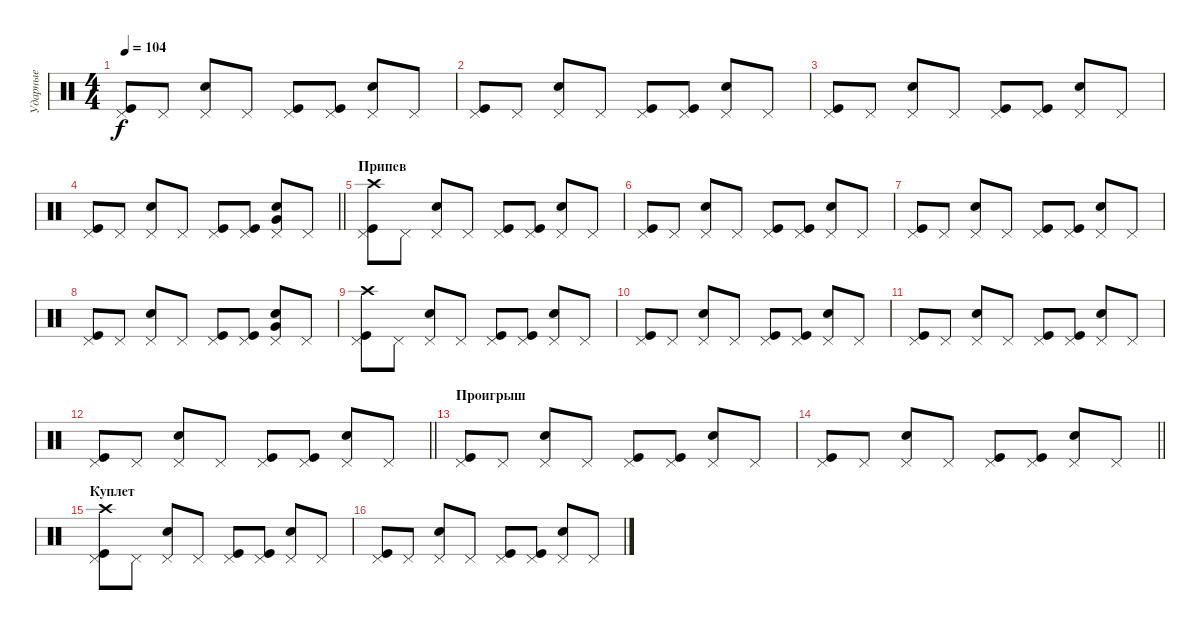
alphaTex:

\track ("Ударные" "Ударные") {instrument percussion}
\staff {score}
\articulation defaults
\ts (4 4)
\tempo 104
\clef neutral
\ks c
("Pedal Hi-Hat (hit)" "Kick (hit)").8{dy f} "Pedal Hi-Hat (hit)".8 ("Pedal Hi-Hat (hit)" "Snare (hit) 2").8 "Pedal Hi-Hat (hit)".8 ("Pedal Hi-Hat (hit)" "Kick (hit)").8 ("Pedal Hi-Hat (hit)" "Kick (hit)").8 ("Pedal Hi-Hat (hit)" "Snare (hit) 2").8 "Pedal Hi-Hat (hit)".8 |
("Pedal Hi-Hat (hit)" "Kick (hit)").8 "Pedal Hi-Hat (hit)".8 ("Pedal Hi-Hat (hit)" "Snare (hit) 2").8 "Pedal Hi-Hat (hit)".8 ("Pedal Hi-Hat (hit)" "Kick (hit)").8 ("Pedal Hi-Hat (hit)" "Kick (hit)").8 ("Pedal Hi-Hat (hit)" "Snare (hit) 2").8 "Pedal Hi-Hat (hit)".8 |
("Pedal Hi-Hat (hit)" "Kick (hit)").8 "Pedal Hi-Hat (hit)".8 ("Pedal Hi-Hat (hit)" "Snare (hit) 2").8 "Pedal Hi-Hat (hit)".8 ("Pedal Hi-Hat (hit)" "Kick (hit)").8 ("Pedal Hi-Hat (hit)" "Kick (hit)").8 ("Pedal Hi-Hat (hit)" "Snare (hit) 2").8 "Pedal Hi-Hat (hit)".8 |
\barLineRight lightlight
("Pedal Hi-Hat (hit)" "Kick (hit)").8 "Pedal Hi-Hat (hit)".8 ("Pedal Hi-Hat (hit)" "Snare (hit) 2").8 "Pedal Hi-Hat (hit)".8 ("Pedal Hi-Hat (hit)" "Kick (hit)").8 ("Pedal Hi-Hat (hit)" "Kick (hit)").8 ("Pedal Hi-Hat (hit)" "Snare (hit) 2" "Very Low Tom (hit)").8 "Pedal Hi-Hat (hit)".8 |
\section ("" "Припев")
("Pedal Hi-Hat (hit)" "Kick (hit)" "Crash high (hit)").8 "Pedal Hi-Hat (hit)".8 ("Pedal Hi-Hat (hit)" "Snare (hit) 2").8 "Pedal Hi-Hat (hit)".8 ("Pedal Hi-Hat (hit)" "Kick (hit)").8 ("Pedal Hi-Hat (hit)" "Kick (hit)").8 ("Pedal Hi-Hat (hit)" "Snare (hit) 2").8 "Pedal Hi-Hat (hit)".8 |
("Pedal Hi-Hat (hit)" "Kick (hit)").8 "Pedal Hi-Hat (hit)".8 ("Pedal Hi-Hat (hit)" "Snare (hit) 2").8 "Pedal Hi-Hat (hit)".8 ("Pedal Hi-Hat (hit)" "Kick (hit)").8 ("Pedal Hi-Hat (hit)" "Kick (hit)").8 ("Pedal Hi-Hat (hit)" "Snare (hit) 2").8 "Pedal Hi-Hat (hit)".8 |
("Pedal Hi-Hat (hit)" "Kick (hit)").8 "Pedal Hi-Hat (hit)".8 ("Pedal Hi-Hat (hit)" "Snare (hit) 2").8 "Pedal Hi-Hat (hit)".8 ("Pedal Hi-Hat (hit)" "Kick (hit)").8 ("Pedal Hi-Hat (hit)" "Kick (hit)").8 ("Pedal Hi-Hat (hit)" "Snare (hit) 2").8 "Pedal Hi-Hat (hit)".8 |
("Pedal Hi-Hat (hit)" "Kick (hit)").8 "Pedal Hi-Hat (hit)".8 ("Pedal Hi-Hat (hit)" "Snare (hit) 2").8 "Pedal Hi-Hat (hit)".8 ("Pedal Hi-Hat (hit)" "Kick (hit)").8 ("Pedal Hi-Hat (hit)" "Kick (hit)").8 ("Pedal Hi-Hat (hit)" "Snare (hit) 2" "Very Low Tom (hit)").8 "Pedal Hi-Hat (hit)".8 |
("Pedal Hi-Hat (hit)" "Kick (hit)" "Crash high (hit)").8 "Pedal Hi-Hat (hit)".8 ("Pedal Hi-Hat (hit)" "Snare (hit) 2").8 "Pedal Hi-Hat (hit)".8 ("Pedal Hi-Hat (hit)" "Kick (hit)").8 ("Pedal Hi-Hat (hit)" "Kick (hit)").8 ("Pedal Hi-Hat (hit)" "Snare (hit) 2").8 "Pedal Hi-Hat (hit)".8 |
("Pedal Hi-Hat (hit)" "Kick (hit)").8 "Pedal Hi-Hat (hit)".8 ("Pedal Hi-Hat (hit)" "Snare (hit) 2").8 "Pedal Hi-Hat (hit)".8 ("Pedal Hi-Hat (hit)" "Kick (hit)").8 ("Pedal Hi-Hat (hit)" "Kick (hit)").8 ("Pedal Hi-Hat (hit)" "Snare (hit) 2").8 "Pedal Hi-Hat (hit)".8 |
("Pedal Hi-Hat (hit)" "Kick (hit)").8 "Pedal Hi-Hat (hit)".8 ("Pedal Hi-Hat (hit)" "Snare (hit) 2").8 "Pedal Hi-Hat (hit)".8 ("Pedal Hi-Hat (hit)" "Kick (hit)").8 ("Pedal Hi-Hat (hit)" "Kick (hit)").8 ("Pedal Hi-Hat (hit)" "Snare (hit) 2").8 "Pedal Hi-Hat (hit)".8 |
\barLineRight lightlight
("Pedal Hi-Hat (hit)" "Kick (hit)").8 "Pedal Hi-Hat (hit)".8 ("Pedal Hi-Hat (hit)" "Snare (hit) 2").8 "Pedal Hi-Hat (hit)".8 ("Pedal Hi-Hat (hit)" "Kick (hit)").8 ("Pedal Hi-Hat (hit)" "Kick (hit)").8 ("Pedal Hi-Hat (hit)" "Snare (hit) 2").8 "Pedal Hi-Hat (hit)".8 |
\section ("" "Проигрыш")
("Pedal Hi-Hat (hit)" "Kick (hit)").8 "Pedal Hi-Hat (hit)".8 ("Pedal Hi-Hat (hit)" "Snare (hit) 2").8 "Pedal Hi-Hat (hit)".8 ("Pedal Hi-Hat (hit)" "Kick (hit)").8 ("Pedal Hi-Hat (hit)" "Kick (hit)").8 ("Pedal Hi-Hat (hit)" "Snare (hit) 2").8 "Pedal Hi-Hat (hit)".8 |
\barLineRight lightlight
("Pedal Hi-Hat (hit)" "Kick (hit)").8 "Pedal Hi-Hat (hit)".8 ("Pedal Hi-Hat (hit)" "Snare (hit) 2").8 "Pedal Hi-Hat (hit)".8 ("Pedal Hi-Hat (hit)" "Kick (hit)").8 ("Pedal Hi-Hat (hit)" "Kick (hit)").8 ("Pedal Hi-Hat (hit)" "Snare (hit) 2").8 "Pedal Hi-Hat (hit)".8 |
\section ("" "Куплет")
("Pedal Hi-Hat (hit)" "Kick (hit)" "Crash high (hit)").8 "Pedal Hi-Hat (hit)".8 ("Pedal Hi-Hat (hit)" "Snare (hit) 2").8 "Pedal Hi-Hat (hit)".8 ("Pedal Hi-Hat (hit)" "Kick (hit)").8 ("Pedal Hi-Hat (hit)" "Kick (hit)").8 ("Pedal Hi-Hat (hit)" "Snare (hit) 2").8 "Pedal Hi-Hat (hit)".8 |
("Pedal Hi-Hat (hit)" "Kick (hit)").8 "Pedal Hi-Hat (hit)".8 ("Pedal Hi-Hat (hit)" "Snare (hit) 2").8 "Pedal Hi-Hat (hit)".8 ("Pedal Hi-Hat (hit)" "Kick (hit)").8 ("Pedal Hi-Hat (hit)" "Kick (hit)").8 ("Pedal Hi-Hat (hit)" "Snare (hit) 2").8 "Pedal Hi-Hat (hit)".8
